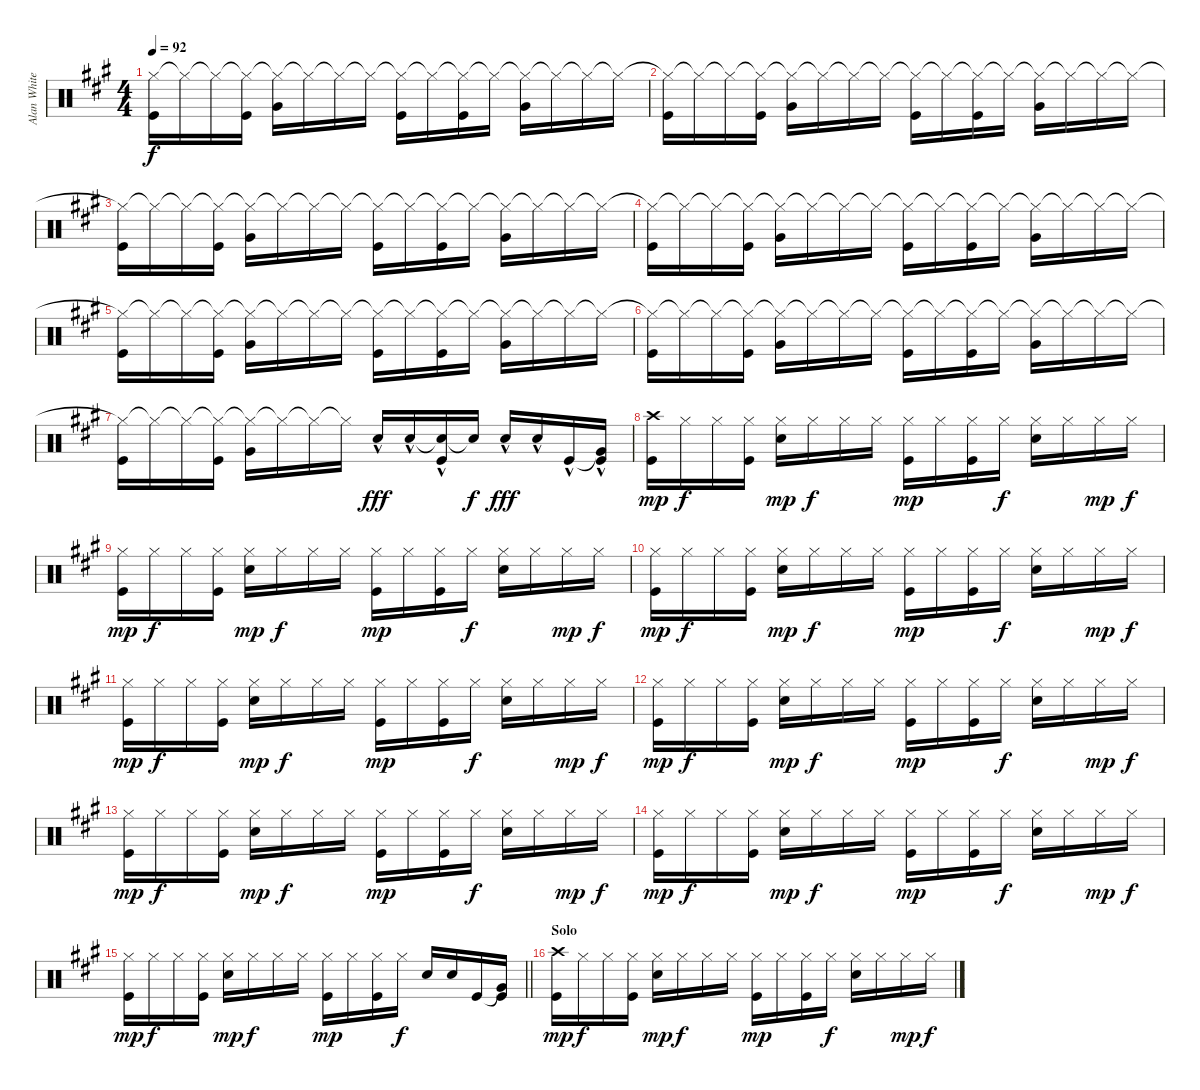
\track ("Alan White" "Alan White") {instrument percussion}
\staff {score}
\articulation defaults
\ts (4 4)
\tempo 92
\clef neutral
\ks a
("Hi-Hat (closed)"{t} "Kick (hit)").16{dy f} "Hi-Hat (closed)"{t}.16 "Hi-Hat (closed)"{t}.16 ("Hi-Hat (closed)"{t} "Kick (hit)").16 ("Hi-Hat (closed)"{t} "Very Low Tom (hit)").16 "Hi-Hat (closed)"{t}.16 "Hi-Hat (closed)"{t}.16 "Hi-Hat (closed)"{t}.16 ("Hi-Hat (closed)"{t} "Kick (hit)").16 "Hi-Hat (closed)"{t}.16 ("Hi-Hat (closed)"{t} "Kick (hit)").16 "Hi-Hat (closed)"{t}.16 ("Hi-Hat (closed)"{t} "Very Low Tom (hit)").16 "Hi-Hat (closed)"{t}.16 "Hi-Hat (closed)"{t}.16 "Hi-Hat (closed)"{t}.16 |
("Hi-Hat (closed)"{t} "Kick (hit)").16 "Hi-Hat (closed)"{t}.16 "Hi-Hat (closed)"{t}.16 ("Hi-Hat (closed)"{t} "Kick (hit)").16 ("Hi-Hat (closed)"{t} "Very Low Tom (hit)").16 "Hi-Hat (closed)"{t}.16 "Hi-Hat (closed)"{t}.16 "Hi-Hat (closed)"{t}.16 ("Hi-Hat (closed)"{t} "Kick (hit)").16 "Hi-Hat (closed)"{t}.16 ("Hi-Hat (closed)"{t} "Kick (hit)").16 "Hi-Hat (closed)"{t}.16 ("Hi-Hat (closed)"{t} "Very Low Tom (hit)").16 "Hi-Hat (closed)"{t}.16 "Hi-Hat (closed)"{t}.16 "Hi-Hat (closed)"{t}.16 |
("Hi-Hat (closed)"{t} "Kick (hit)").16 "Hi-Hat (closed)"{t}.16 "Hi-Hat (closed)"{t}.16 ("Hi-Hat (closed)"{t} "Kick (hit)").16 ("Hi-Hat (closed)"{t} "Very Low Tom (hit)").16 "Hi-Hat (closed)"{t}.16 "Hi-Hat (closed)"{t}.16 "Hi-Hat (closed)"{t}.16 ("Hi-Hat (closed)"{t} "Kick (hit)").16 "Hi-Hat (closed)"{t}.16 ("Hi-Hat (closed)"{t} "Kick (hit)").16 "Hi-Hat (closed)"{t}.16 ("Hi-Hat (closed)"{t} "Very Low Tom (hit)").16 "Hi-Hat (closed)"{t}.16 "Hi-Hat (closed)"{t}.16 "Hi-Hat (closed)"{t}.16 |
("Hi-Hat (closed)"{t} "Kick (hit)").16 "Hi-Hat (closed)"{t}.16 "Hi-Hat (closed)"{t}.16 ("Hi-Hat (closed)"{t} "Kick (hit)").16 ("Hi-Hat (closed)"{t} "Very Low Tom (hit)").16 "Hi-Hat (closed)"{t}.16 "Hi-Hat (closed)"{t}.16 "Hi-Hat (closed)"{t}.16 ("Hi-Hat (closed)"{t} "Kick (hit)").16 "Hi-Hat (closed)"{t}.16 ("Hi-Hat (closed)"{t} "Kick (hit)").16 "Hi-Hat (closed)"{t}.16 ("Hi-Hat (closed)"{t} "Very Low Tom (hit)").16 "Hi-Hat (closed)"{t}.16 "Hi-Hat (closed)"{t}.16 "Hi-Hat (closed)"{t}.16 |
("Hi-Hat (closed)"{t} "Kick (hit)").16 "Hi-Hat (closed)"{t}.16 "Hi-Hat (closed)"{t}.16 ("Hi-Hat (closed)"{t} "Kick (hit)").16 ("Hi-Hat (closed)"{t} "Very Low Tom (hit)").16 "Hi-Hat (closed)"{t}.16 "Hi-Hat (closed)"{t}.16 "Hi-Hat (closed)"{t}.16 ("Hi-Hat (closed)"{t} "Kick (hit)").16 "Hi-Hat (closed)"{t}.16 ("Hi-Hat (closed)"{t} "Kick (hit)").16 "Hi-Hat (closed)"{t}.16 ("Hi-Hat (closed)"{t} "Very Low Tom (hit)").16 "Hi-Hat (closed)"{t}.16 "Hi-Hat (closed)"{t}.16 "Hi-Hat (closed)"{t}.16 |
("Hi-Hat (closed)"{t} "Kick (hit)").16 "Hi-Hat (closed)"{t}.16 "Hi-Hat (closed)"{t}.16 ("Hi-Hat (closed)"{t} "Kick (hit)").16 ("Hi-Hat (closed)"{t} "Very Low Tom (hit)").16 "Hi-Hat (closed)"{t}.16 "Hi-Hat (closed)"{t}.16 "Hi-Hat (closed)"{t}.16 ("Hi-Hat (closed)"{t} "Kick (hit)").16 "Hi-Hat (closed)"{t}.16 ("Hi-Hat (closed)"{t} "Kick (hit)").16 "Hi-Hat (closed)"{t}.16 ("Hi-Hat (closed)"{t} "Very Low Tom (hit)").16 "Hi-Hat (closed)"{t}.16 "Hi-Hat (closed)"{t}.16 "Hi-Hat (closed)"{t}.16 |
("Hi-Hat (closed)"{t} "Kick (hit)").16 "Hi-Hat (closed)"{t}.16 "Hi-Hat (closed)"{t}.16 ("Hi-Hat (closed)"{t} "Kick (hit)").16 ("Hi-Hat (closed)"{t} "Very Low Tom (hit)").16 "Hi-Hat (closed)"{t}.16 "Hi-Hat (closed)"{t}.16 "Hi-Hat (closed)"{t}.16 "Snare (hit) 2"{hac}.16{dy fff} "Snare (hit) 2"{hac}.16 ("Snare (hit) 2"{t} "Kick (hit)"{hac}).16 "Snare (hit) 2"{t}.16{dy f} "Snare (hit) 2"{hac}.16{dy fff} "Snare (hit) 2"{hac}.16 "Kick (hit)"{hac}.16 ("Very Low Tom (hit)"{t} "Kick (hit)"{hac}).16 |
("Crash high (hit)" "Kick (hit)").16{dy mp} "Hi-Hat (closed)".16{dy f} "Hi-Hat (closed)".16 ("Hi-Hat (closed)" "Kick (hit)").16 ("Hi-Hat (closed)" "Snare (hit) 2").16{dy mp} "Hi-Hat (closed)".16{dy f} "Hi-Hat (closed)".16 "Hi-Hat (closed)".16 ("Hi-Hat (closed)" "Kick (hit)").16{dy mp} "Hi-Hat (closed)".16 ("Hi-Hat (closed)" "Kick (hit)").16 "Hi-Hat (closed)".16{dy f} ("Hi-Hat (closed)" "Snare (hit) 2").16 "Hi-Hat (closed)".16 "Hi-Hat (closed)".16{dy mp} "Hi-Hat (closed)".16{dy f} |
("Hi-Hat (closed)" "Kick (hit)").16{dy mp} "Hi-Hat (closed)".16{dy f} "Hi-Hat (closed)".16 ("Hi-Hat (closed)" "Kick (hit)").16 ("Hi-Hat (closed)" "Snare (hit) 2").16{dy mp} "Hi-Hat (closed)".16{dy f} "Hi-Hat (closed)".16 "Hi-Hat (closed)".16 ("Hi-Hat (closed)" "Kick (hit)").16{dy mp} "Hi-Hat (closed)".16 ("Hi-Hat (closed)" "Kick (hit)").16 "Hi-Hat (closed)".16{dy f} ("Hi-Hat (closed)" "Snare (hit) 2").16 "Hi-Hat (closed)".16 "Hi-Hat (closed)".16{dy mp} "Hi-Hat (closed)".16{dy f} |
("Hi-Hat (closed)" "Kick (hit)").16{dy mp} "Hi-Hat (closed)".16{dy f} "Hi-Hat (closed)".16 ("Hi-Hat (closed)" "Kick (hit)").16 ("Hi-Hat (closed)" "Snare (hit) 2").16{dy mp} "Hi-Hat (closed)".16{dy f} "Hi-Hat (closed)".16 "Hi-Hat (closed)".16 ("Hi-Hat (closed)" "Kick (hit)").16{dy mp} "Hi-Hat (closed)".16 ("Hi-Hat (closed)" "Kick (hit)").16 "Hi-Hat (closed)".16{dy f} ("Hi-Hat (closed)" "Snare (hit) 2").16 "Hi-Hat (closed)".16 "Hi-Hat (closed)".16{dy mp} "Hi-Hat (closed)".16{dy f} |
("Hi-Hat (closed)" "Kick (hit)").16{dy mp} "Hi-Hat (closed)".16{dy f} "Hi-Hat (closed)".16 ("Hi-Hat (closed)" "Kick (hit)").16 ("Hi-Hat (closed)" "Snare (hit) 2").16{dy mp} "Hi-Hat (closed)".16{dy f} "Hi-Hat (closed)".16 "Hi-Hat (closed)".16 ("Hi-Hat (closed)" "Kick (hit)").16{dy mp} "Hi-Hat (closed)".16 ("Hi-Hat (closed)" "Kick (hit)").16 "Hi-Hat (closed)".16{dy f} ("Hi-Hat (closed)" "Snare (hit) 2").16 "Hi-Hat (closed)".16 "Hi-Hat (closed)".16{dy mp} "Hi-Hat (closed)".16{dy f} |
("Hi-Hat (closed)" "Kick (hit)").16{dy mp} "Hi-Hat (closed)".16{dy f} "Hi-Hat (closed)".16 ("Hi-Hat (closed)" "Kick (hit)").16 ("Hi-Hat (closed)" "Snare (hit) 2").16{dy mp} "Hi-Hat (closed)".16{dy f} "Hi-Hat (closed)".16 "Hi-Hat (closed)".16 ("Hi-Hat (closed)" "Kick (hit)").16{dy mp} "Hi-Hat (closed)".16 ("Hi-Hat (closed)" "Kick (hit)").16 "Hi-Hat (closed)".16{dy f} ("Hi-Hat (closed)" "Snare (hit) 2").16 "Hi-Hat (closed)".16 "Hi-Hat (closed)".16{dy mp} "Hi-Hat (closed)".16{dy f} |
("Hi-Hat (closed)" "Kick (hit)").16{dy mp} "Hi-Hat (closed)".16{dy f} "Hi-Hat (closed)".16 ("Hi-Hat (closed)" "Kick (hit)").16 ("Hi-Hat (closed)" "Snare (hit) 2").16{dy mp} "Hi-Hat (closed)".16{dy f} "Hi-Hat (closed)".16 "Hi-Hat (closed)".16 ("Hi-Hat (closed)" "Kick (hit)").16{dy mp} "Hi-Hat (closed)".16 ("Hi-Hat (closed)" "Kick (hit)").16 "Hi-Hat (closed)".16{dy f} ("Hi-Hat (closed)" "Snare (hit) 2").16 "Hi-Hat (closed)".16 "Hi-Hat (closed)".16{dy mp} "Hi-Hat (closed)".16{dy f} |
("Hi-Hat (closed)" "Kick (hit)").16{dy mp} "Hi-Hat (closed)".16{dy f} "Hi-Hat (closed)".16 ("Hi-Hat (closed)" "Kick (hit)").16 ("Hi-Hat (closed)" "Snare (hit) 2").16{dy mp} "Hi-Hat (closed)".16{dy f} "Hi-Hat (closed)".16 "Hi-Hat (closed)".16 ("Hi-Hat (closed)" "Kick (hit)").16{dy mp} "Hi-Hat (closed)".16 ("Hi-Hat (closed)" "Kick (hit)").16 "Hi-Hat (closed)".16{dy f} ("Hi-Hat (closed)" "Snare (hit) 2").16 "Hi-Hat (closed)".16 "Hi-Hat (closed)".16{dy mp} "Hi-Hat (closed)".16{dy f} |
\barLineRight lightlight
("Hi-Hat (closed)" "Kick (hit)").16{dy mp} "Hi-Hat (closed)".16{dy f} "Hi-Hat (closed)".16 ("Hi-Hat (closed)" "Kick (hit)").16 ("Hi-Hat (closed)" "Snare (hit) 2").16{dy mp} "Hi-Hat (closed)".16{dy f} "Hi-Hat (closed)".16 "Hi-Hat (closed)".16 ("Hi-Hat (closed)" "Kick (hit)").16{dy mp} "Hi-Hat (closed)".16 ("Hi-Hat (closed)" "Kick (hit)").16 "Hi-Hat (closed)".16{dy f} "Snare (hit) 2".16 "Snare (hit) 2".16 "Kick (hit)".16 ("Very Low Tom (hit)"{t} "Kick (hit)").16 |
\section ("" "Solo")
("Crash high (hit)" "Kick (hit)").16{dy mp} "Hi-Hat (closed)".16{dy f} "Hi-Hat (closed)".16 ("Hi-Hat (closed)" "Kick (hit)").16 ("Hi-Hat (closed)" "Snare (hit) 2").16{dy mp} "Hi-Hat (closed)".16{dy f} "Hi-Hat (closed)".16 "Hi-Hat (closed)".16 ("Hi-Hat (closed)" "Kick (hit)").16{dy mp} "Hi-Hat (closed)".16 ("Hi-Hat (closed)" "Kick (hit)").16 "Hi-Hat (closed)".16{dy f} ("Hi-Hat (closed)" "Snare (hit) 2").16 "Hi-Hat (closed)".16 "Hi-Hat (closed)".16{dy mp} "Hi-Hat (closed)".16{dy f}
